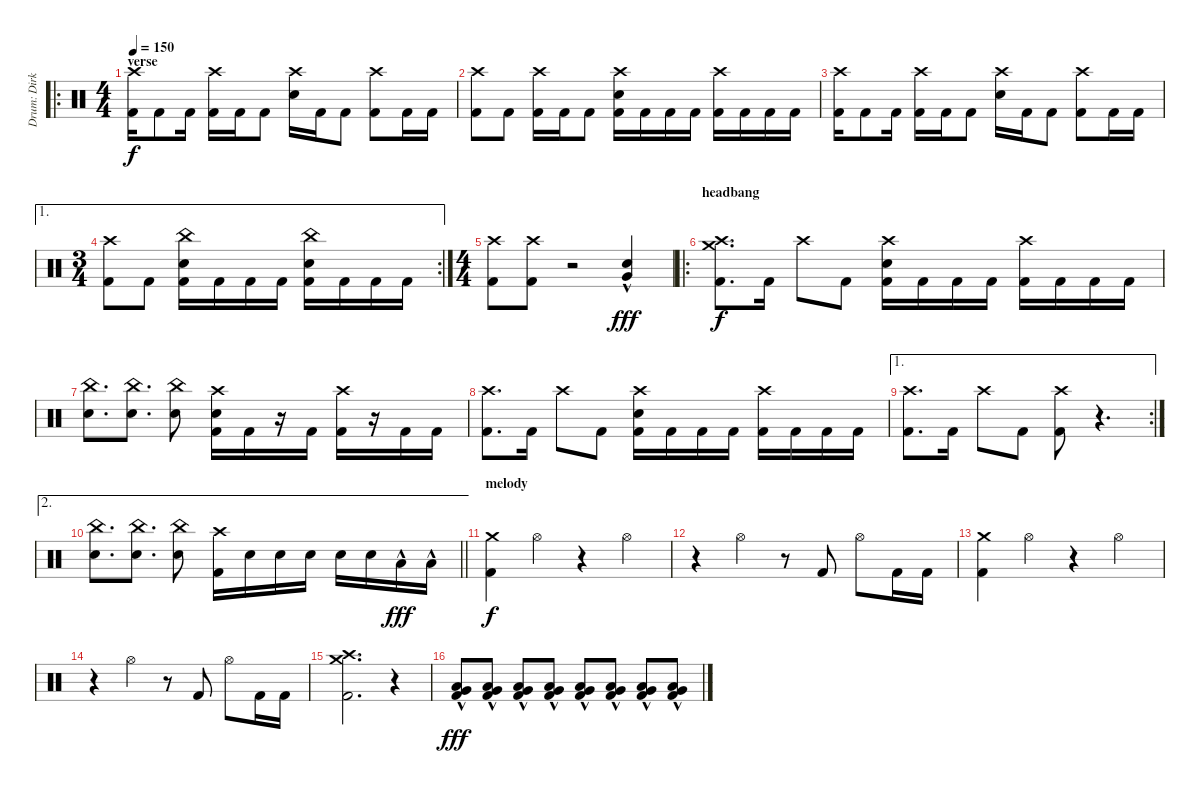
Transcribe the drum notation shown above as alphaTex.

\track ("Drum: Dirk" "Drum: Dirk") {instrument percussion}
\staff {score}
\articulation defaults
\ro
\ts (4 4)
\section ("" "verse")
\tempo 150
\clef neutral
\ks c
("Crash high (hit)" "Kick (hit) 2").16{dy f} "Kick (hit) 2".8 "Kick (hit) 2".16 ("Crash high (hit)" "Kick (hit) 2").16 "Kick (hit) 2".16 "Kick (hit) 2".8 ("Crash high (hit)" "Electric Snare (hit)").16 "Kick (hit) 2".16 "Kick (hit) 2".8 ("Crash high (hit)" "Kick (hit) 2").8 "Kick (hit) 2".16 "Kick (hit) 2".16 |
("Crash high (hit)" "Kick (hit) 2").8 "Kick (hit) 2".8 ("Crash high (hit)" "Kick (hit) 2").16 "Kick (hit) 2".16 "Kick (hit) 2".8 ("Crash high (hit)" "Electric Snare (hit)" "Kick (hit) 2").16 "Kick (hit) 2".16 "Kick (hit) 2".16 "Kick (hit) 2".16 ("Crash high (hit)" "Kick (hit) 2").16 "Kick (hit) 2".16 "Kick (hit) 2".16 "Kick (hit) 2".16 |
("Crash high (hit)" "Kick (hit) 2").16 "Kick (hit) 2".8 "Kick (hit) 2".16 ("Crash high (hit)" "Kick (hit) 2").16 "Kick (hit) 2".16 "Kick (hit) 2".8 ("Crash high (hit)" "Electric Snare (hit)").16 "Kick (hit) 2".16 "Kick (hit) 2".8 ("Crash high (hit)" "Kick (hit) 2").8 "Kick (hit) 2".16 "Kick (hit) 2".16 |
\ae 1
\rc 2
\ts (3 4)
("Crash high (hit)" "Kick (hit) 2").8 "Kick (hit) 2".8 ("China (hit)" "Electric Snare (hit)" "Kick (hit) 2").16 "Kick (hit) 2".16 "Kick (hit) 2".16 "Kick (hit) 2".16 ("China (hit)" "Electric Snare (hit)" "Kick (hit) 2").16 "Kick (hit) 2".16 "Kick (hit) 2".16 "Kick (hit) 2".16 |
\ts (4 4)
("Crash high (hit)" "Kick (hit) 2").8 ("Crash high (hit)" "Kick (hit) 2").8 r.2 ("Electric Snare (hit)" "Very Low Tom (hit)"{hac}).4{dy fff} |
\ro
\section ("" "headbang")
("Crash high (hit)" "Crash medium (hit)" "Kick (hit) 2").8{d dy f volume 14} "Kick (hit) 2".16 "Crash high (hit)".8 "Kick (hit) 2".8 ("Crash high (hit)" "Electric Snare (hit)" "Kick (hit) 2").16 "Kick (hit) 2".16 "Kick (hit) 2".16 "Kick (hit) 2".16 ("Crash high (hit)" "Kick (hit) 2").16 "Kick (hit) 2".16 "Kick (hit) 2".16 "Kick (hit) 2".16 |
("China (hit)" "Electric Snare (hit)").8{d} ("China (hit)" "Electric Snare (hit)").8{d} ("China (hit)" "Electric Snare (hit)").8 ("Crash high (hit)" "Electric Snare (hit)" "Kick (hit) 2").16 "Kick (hit) 2".16 r.16 "Kick (hit) 2".16 ("Crash high (hit)" "Kick (hit) 2").16 r.16 "Kick (hit) 2".16 "Kick (hit) 2".16 |
("Crash high (hit)" "Kick (hit) 2").8{d} "Kick (hit) 2".16 "Crash high (hit)".8 "Kick (hit) 2".8 ("Crash high (hit)" "Electric Snare (hit)" "Kick (hit) 2").16 "Kick (hit) 2".16 "Kick (hit) 2".16 "Kick (hit) 2".16 ("Crash high (hit)" "Kick (hit) 2").16 "Kick (hit) 2".16 "Kick (hit) 2".16 "Kick (hit) 2".16 |
\ae 1
\rc 2
("Crash high (hit)" "Kick (hit) 2").8{d} "Kick (hit) 2".16 "Crash high (hit)".8 "Kick (hit) 2".8 ("Crash high (hit)" "Kick (hit) 2").8 r.4{d volume 0} |
\ae 2
\barLineRight lightlight
("China (hit)" "Electric Snare (hit)").8{d} ("China (hit)" "Electric Snare (hit)").8{d} ("China (hit)" "Electric Snare (hit)").8 ("Crash high (hit)" "Kick (hit) 2").16 "Electric Snare (hit)".16 "Electric Snare (hit)".16 "Electric Snare (hit)".16 "Electric Snare (hit)".16 "Electric Snare (hit)".16 "Low Tom (hit)"{hac}.16{dy fff} "Low Tom (hit)"{hac}.16 |
\section ("" "melody")
("Crash medium (hit)" "Kick (hit) 2").4{dy f} "Hi-Hat (open)".4 r.4 "Hi-Hat (open)".4 |
r.4 "Hi-Hat (open)".4 r.8 "Kick (hit) 2".8 "Hi-Hat (open)".8 "Kick (hit) 2".16 "Kick (hit) 2".16 |
("Crash medium (hit)" "Kick (hit) 2").4 "Hi-Hat (open)".4 r.4 "Hi-Hat (open)".4 |
r.4 "Hi-Hat (open)".4 r.8 "Kick (hit) 2".8 "Hi-Hat (open)".8 "Kick (hit) 2".16 "Kick (hit) 2".16 |
("Crash high (hit)" "Crash medium (hit)" "Kick (hit) 2").2{d} r.4{volume 5} |
("Low Tom (hit)"{hac} "Very Low Tom (hit)" "Kick (hit) 2").8{dy fff volume 14} ("Low Tom (hit)"{hac} "Very Low Tom (hit)" "Kick (hit) 2").8 ("Low Tom (hit)"{hac} "Very Low Tom (hit)" "Kick (hit) 2").8 ("Low Tom (hit)"{hac} "Very Low Tom (hit)" "Kick (hit) 2").8 ("Low Tom (hit)"{hac} "Very Low Tom (hit)" "Kick (hit) 2").8 ("Low Tom (hit)"{hac} "Very Low Tom (hit)" "Kick (hit) 2").8 ("Low Tom (hit)"{hac} "Very Low Tom (hit)" "Kick (hit) 2").8 ("Low Tom (hit)"{hac} "Very Low Tom (hit)" "Kick (hit) 2").8
